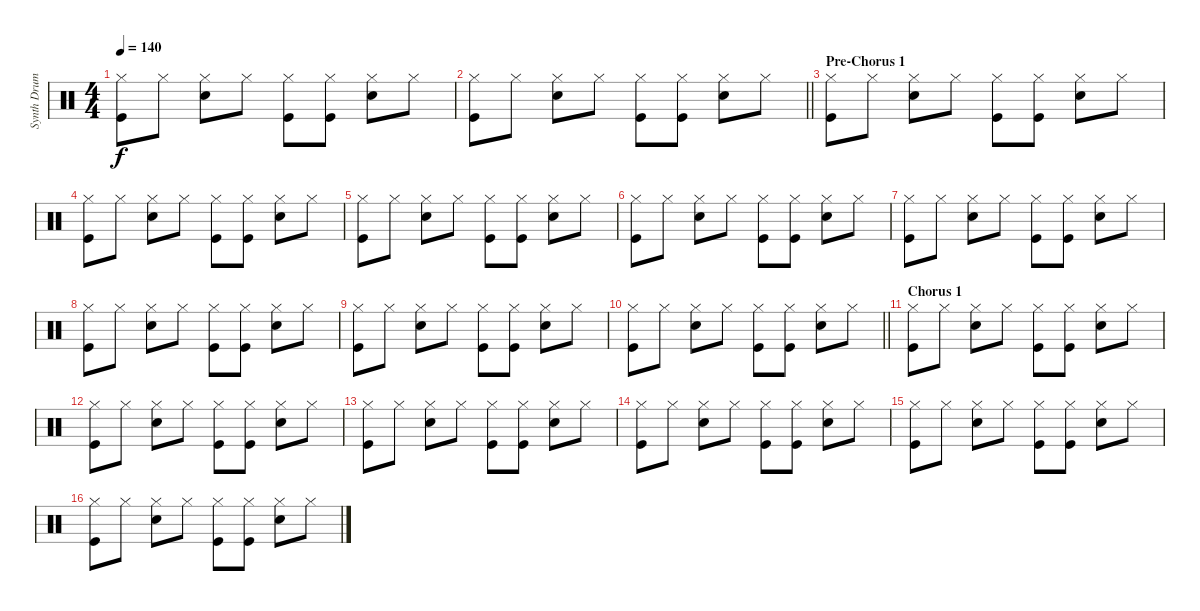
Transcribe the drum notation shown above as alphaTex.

\track ("Synth Drums" "Synth Drum") {instrument percussion}
\staff {score}
\articulation defaults
\ts (4 4)
\tempo 140
\clef neutral
\ks c
("Hi-Hat (closed)" "Kick (hit)").8{dy f} "Hi-Hat (closed)".8 ("Hi-Hat (closed)" "Snare (hit) 2").8 "Hi-Hat (closed)".8 ("Hi-Hat (closed)" "Kick (hit)").8 ("Hi-Hat (closed)" "Kick (hit)").8 ("Hi-Hat (closed)" "Snare (hit) 2").8 "Hi-Hat (closed)".8 |
\barLineRight lightlight
("Hi-Hat (closed)" "Kick (hit)").8 "Hi-Hat (closed)".8 ("Hi-Hat (closed)" "Snare (hit) 2").8 "Hi-Hat (closed)".8 ("Hi-Hat (closed)" "Kick (hit)").8 ("Hi-Hat (closed)" "Kick (hit)").8 ("Hi-Hat (closed)" "Snare (hit) 2").8 "Hi-Hat (closed)".8 |
\section ("" "Pre-Chorus 1")
("Hi-Hat (closed)" "Kick (hit)").8 "Hi-Hat (closed)".8 ("Hi-Hat (closed)" "Snare (hit) 2").8 "Hi-Hat (closed)".8 ("Hi-Hat (closed)" "Kick (hit)").8 ("Hi-Hat (closed)" "Kick (hit)").8 ("Hi-Hat (closed)" "Snare (hit) 2").8 "Hi-Hat (closed)".8 |
("Hi-Hat (closed)" "Kick (hit)").8 "Hi-Hat (closed)".8 ("Hi-Hat (closed)" "Snare (hit) 2").8 "Hi-Hat (closed)".8 ("Hi-Hat (closed)" "Kick (hit)").8 ("Hi-Hat (closed)" "Kick (hit)").8 ("Hi-Hat (closed)" "Snare (hit) 2").8 "Hi-Hat (closed)".8 |
("Hi-Hat (closed)" "Kick (hit)").8 "Hi-Hat (closed)".8 ("Hi-Hat (closed)" "Snare (hit) 2").8 "Hi-Hat (closed)".8 ("Hi-Hat (closed)" "Kick (hit)").8 ("Hi-Hat (closed)" "Kick (hit)").8 ("Hi-Hat (closed)" "Snare (hit) 2").8 "Hi-Hat (closed)".8 |
("Hi-Hat (closed)" "Kick (hit)").8 "Hi-Hat (closed)".8 ("Hi-Hat (closed)" "Snare (hit) 2").8 "Hi-Hat (closed)".8 ("Hi-Hat (closed)" "Kick (hit)").8 ("Hi-Hat (closed)" "Kick (hit)").8 ("Hi-Hat (closed)" "Snare (hit) 2").8 "Hi-Hat (closed)".8 |
("Hi-Hat (closed)" "Kick (hit)").8 "Hi-Hat (closed)".8 ("Hi-Hat (closed)" "Snare (hit) 2").8 "Hi-Hat (closed)".8 ("Hi-Hat (closed)" "Kick (hit)").8 ("Hi-Hat (closed)" "Kick (hit)").8 ("Hi-Hat (closed)" "Snare (hit) 2").8 "Hi-Hat (closed)".8 |
("Hi-Hat (closed)" "Kick (hit)").8 "Hi-Hat (closed)".8 ("Hi-Hat (closed)" "Snare (hit) 2").8 "Hi-Hat (closed)".8 ("Hi-Hat (closed)" "Kick (hit)").8 ("Hi-Hat (closed)" "Kick (hit)").8 ("Hi-Hat (closed)" "Snare (hit) 2").8 "Hi-Hat (closed)".8 |
("Hi-Hat (closed)" "Kick (hit)").8 "Hi-Hat (closed)".8 ("Hi-Hat (closed)" "Snare (hit) 2").8 "Hi-Hat (closed)".8 ("Hi-Hat (closed)" "Kick (hit)").8 ("Hi-Hat (closed)" "Kick (hit)").8 ("Hi-Hat (closed)" "Snare (hit) 2").8 "Hi-Hat (closed)".8 |
\barLineRight lightlight
("Hi-Hat (closed)" "Kick (hit)").8 "Hi-Hat (closed)".8 ("Hi-Hat (closed)" "Snare (hit) 2").8 "Hi-Hat (closed)".8 ("Hi-Hat (closed)" "Kick (hit)").8 ("Hi-Hat (closed)" "Kick (hit)").8 ("Hi-Hat (closed)" "Snare (hit) 2").8 "Hi-Hat (closed)".8 |
\section ("" "Chorus 1")
("Hi-Hat (closed)" "Kick (hit)").8 "Hi-Hat (closed)".8 ("Hi-Hat (closed)" "Snare (hit) 2").8 "Hi-Hat (closed)".8 ("Hi-Hat (closed)" "Kick (hit)").8 ("Hi-Hat (closed)" "Kick (hit)").8 ("Hi-Hat (closed)" "Snare (hit) 2").8 "Hi-Hat (closed)".8 |
("Hi-Hat (closed)" "Kick (hit)").8 "Hi-Hat (closed)".8 ("Hi-Hat (closed)" "Snare (hit) 2").8 "Hi-Hat (closed)".8 ("Hi-Hat (closed)" "Kick (hit)").8 ("Hi-Hat (closed)" "Kick (hit)").8 ("Hi-Hat (closed)" "Snare (hit) 2").8 "Hi-Hat (closed)".8 |
("Hi-Hat (closed)" "Kick (hit)").8 "Hi-Hat (closed)".8 ("Hi-Hat (closed)" "Snare (hit) 2").8 "Hi-Hat (closed)".8 ("Hi-Hat (closed)" "Kick (hit)").8 ("Hi-Hat (closed)" "Kick (hit)").8 ("Hi-Hat (closed)" "Snare (hit) 2").8 "Hi-Hat (closed)".8 |
("Hi-Hat (closed)" "Kick (hit)").8 "Hi-Hat (closed)".8 ("Hi-Hat (closed)" "Snare (hit) 2").8 "Hi-Hat (closed)".8 ("Hi-Hat (closed)" "Kick (hit)").8 ("Hi-Hat (closed)" "Kick (hit)").8 ("Hi-Hat (closed)" "Snare (hit) 2").8 "Hi-Hat (closed)".8 |
("Hi-Hat (closed)" "Kick (hit)").8 "Hi-Hat (closed)".8 ("Hi-Hat (closed)" "Snare (hit) 2").8 "Hi-Hat (closed)".8 ("Hi-Hat (closed)" "Kick (hit)").8 ("Hi-Hat (closed)" "Kick (hit)").8 ("Hi-Hat (closed)" "Snare (hit) 2").8 "Hi-Hat (closed)".8 |
("Hi-Hat (closed)" "Kick (hit)").8 "Hi-Hat (closed)".8 ("Hi-Hat (closed)" "Snare (hit) 2").8 "Hi-Hat (closed)".8 ("Hi-Hat (closed)" "Kick (hit)").8 ("Hi-Hat (closed)" "Kick (hit)").8 ("Hi-Hat (closed)" "Snare (hit) 2").8 "Hi-Hat (closed)".8
